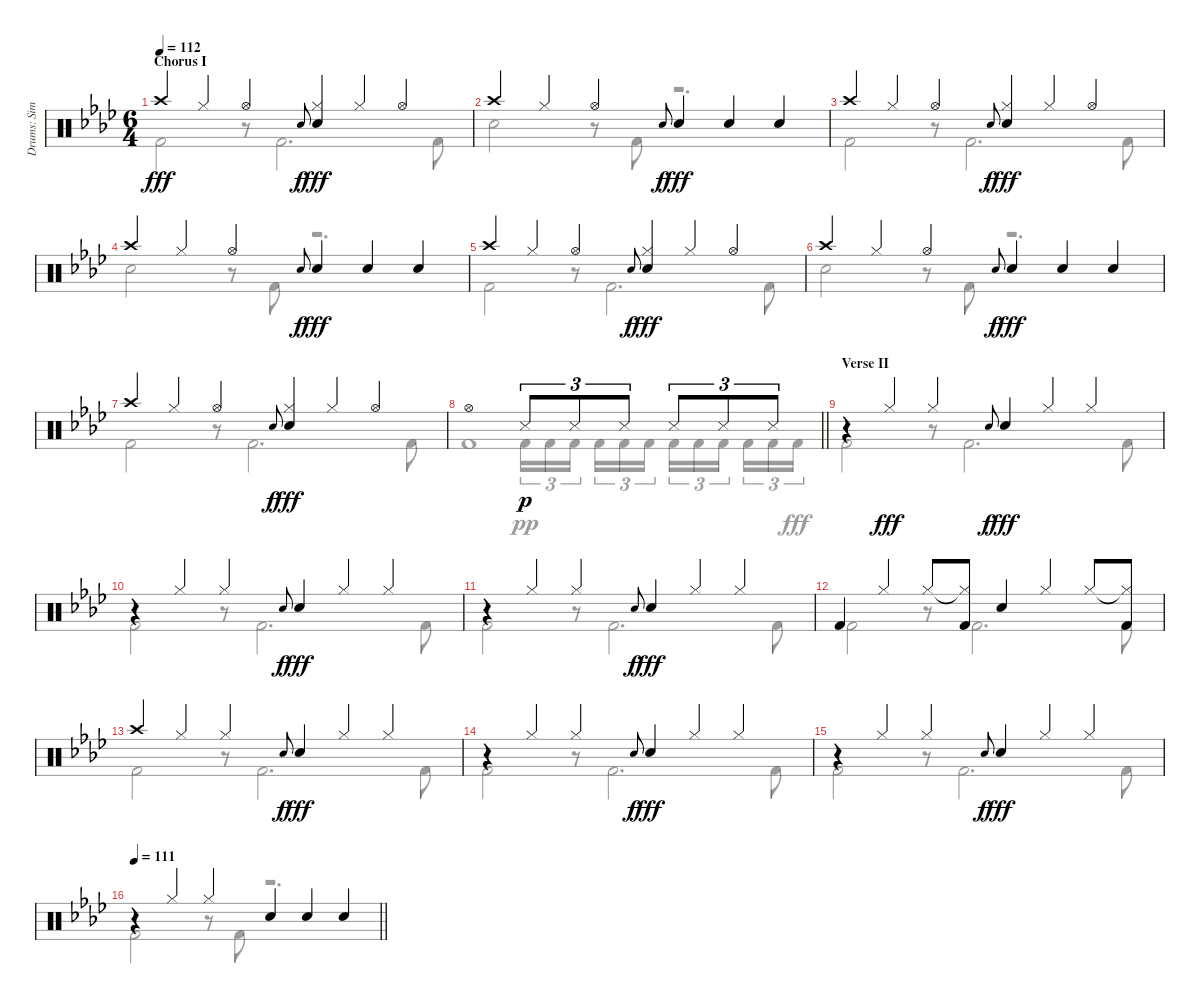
\track ("Drums: Simon" "Drums: Sim") {instrument percussion}
\staff {score}
\articulation defaults
\voice
\ts (6 4)
\section ("" "Chorus I")
\tempo 112
\clef neutral
\ks ab "Crash high (hit)".4{dy fff} "Hi-Hat (closed)".4 "Hi-Hat (open)".4 "Electric Snare (hit)".8{gr onbeat dy f}
("Hi-Hat (closed)" "Snare (hit) 2").4{dy fff} "Hi-Hat (closed)".4 "Hi-Hat (open)".4 |
"Crash high (hit)".4 "Hi-Hat (closed)".4 "Hi-Hat (open)".4 "Snare (hit) 2".8{gr onbeat dy f} "Electric Snare (hit)".4{dy fff} "Electric Snare (hit)".4 "Electric Snare (hit)".4 |
"Crash high (hit)".4 "Hi-Hat (closed)".4 "Hi-Hat (open)".4 "Electric Snare (hit)".8{gr onbeat dy f} ("Hi-Hat (closed)" "Snare (hit) 2").4{dy fff} "Hi-Hat (closed)".4 "Hi-Hat (open)".4 |
"Crash high (hit)".4 "Hi-Hat (closed)".4 "Hi-Hat (open)".4 "Snare (hit) 2".8{gr onbeat dy f} "Electric Snare (hit)".4{dy fff} "Electric Snare (hit)".4 "Electric Snare (hit)".4 |
"Crash high (hit)".4 "Hi-Hat (closed)".4 "Hi-Hat (open)".4 "Electric Snare (hit)".8{gr onbeat dy f} ("Hi-Hat (closed)" "Snare (hit) 2").4{dy fff} "Hi-Hat (closed)".4 "Hi-Hat (open)".4 |
"Crash high (hit)".4 "Hi-Hat (closed)".4 "Hi-Hat (open)".4 "Snare (hit) 2".8{gr onbeat dy f} "Electric Snare (hit)".4{dy fff} "Electric Snare (hit)".4 "Electric Snare (hit)".4 |
"Crash high (hit)".4 "Hi-Hat (closed)".4 "Hi-Hat (open)".4 "Electric Snare (hit)".8{gr onbeat dy f} ("Hi-Hat (closed)" "Snare (hit) 2").4{dy fff} "Hi-Hat (closed)".4 "Hi-Hat (open)".4 |
\barLineRight lightlight "Hi-Hat (open)".1 "Snare (side stick) 3".8{tu (3 2) dy p} "Snare (side stick) 3".8{tu (3 2)} "Snare (side stick) 3".8{tu (3 2)} "Snare (side stick) 3".8{tu (3 2)} "Snare (side stick) 3".8{tu (3 2)} "Snare (side stick) 3".8{tu (3 2)}
|
\section ("" "Verse II")
r.4 "Hi-Hat (closed)".4{dy fff} "Hi-Hat (closed)".4 "Electric Snare (hit)".8{gr onbeat dy f} "Snare (hit) 2".4{dy fff} "Hi-Hat (closed)".4 "Hi-Hat (closed)".4 |
r.4 "Hi-Hat (closed)".4 "Hi-Hat (closed)".4 "Snare (hit) 2".8{gr onbeat dy f} "Electric Snare (hit)".4{dy fff} "Hi-Hat (closed)".4 "Hi-Hat (closed)".4 |
r.4 "Hi-Hat (closed)".4 "Hi-Hat (closed)".4 "Snare (hit) 2".8{gr onbeat dy f} "Electric Snare (hit)".4{dy fff} "Hi-Hat (closed)".4 "Hi-Hat (closed)".4 |
"Kick (hit) 2".4 "Hi-Hat (closed)".4 "Hi-Hat (closed)".8 ("Hi-Hat (closed)"{t} "Kick (hit) 2").8 "Electric Snare (hit)".4 "Hi-Hat (closed)".4 "Hi-Hat (closed)".8 ("Hi-Hat (closed)"{t} "Kick (hit) 2").8 |
"Crash high (hit)".4 "Hi-Hat (closed)".4 "Hi-Hat (closed)".4 "Snare (hit) 2".8{gr onbeat dy f} "Electric Snare (hit)".4{dy fff} "Hi-Hat (closed)".4 "Hi-Hat (closed)".4 |
r.4 "Hi-Hat (closed)".4 "Hi-Hat (closed)".4 "Snare (hit) 2".8{gr onbeat dy f} "Electric Snare (hit)".4{dy fff} "Hi-Hat (closed)".4 "Hi-Hat (closed)".4 |
r.4 "Hi-Hat (closed)".4 "Hi-Hat (closed)".4 "Snare (hit) 2".8{gr onbeat dy f} "Electric Snare (hit)".4{dy fff} "Hi-Hat (closed)".4 "Hi-Hat (closed)".4 |
\tempo 111
\barLineRight lightlight
r.4 "Hi-Hat (closed)".4 "Hi-Hat (closed)".4 "Electric Snare (hit)".4 "Electric Snare (hit)".4 "Electric Snare (hit)".4
\voice
\clef neutral
\ottava regular
\simile none
\ks ab "Kick (hit) 2".2{dy fff}
r.8 "Kick (hit) 2".2{d} "Kick (hit) 2".8 |
"Snare (hit)".2 r.8 "Kick (hit) 2".8 r.2{d} |
"Kick (hit) 2".2 r.8 "Kick (hit) 2".2{d} "Kick (hit) 2".8 |
"Snare (hit)".2 r.8 "Kick (hit) 2".8 r.2{d} |
"Kick (hit) 2".2 r.8 "Kick (hit) 2".2{d} "Kick (hit) 2".8 |
"Snare (hit)".2 r.8 "Kick (hit) 2".8 r.2{d} |
"Kick (hit) 2".2 r.8 "Kick (hit) 2".2{d} "Kick (hit) 2".8 |
\barLineRight lightlight "Kick (hit) 2".1 "Kick (hit) 2".16{tu (3 2) dy pp} "Kick (hit) 2".16{tu (3 2)} "Kick (hit) 2".16{tu (3 2) beam splitsecondary} "Kick (hit) 2".16{tu (3 2)} "Kick (hit) 2".16{tu (3 2)} "Kick (hit) 2".16{tu (3 2) beam splitsecondary} "Kick (hit) 2".16{tu (3 2)} "Kick (hit) 2".16{tu (3 2)} "Kick (hit) 2".16{tu (3 2) beam splitsecondary} "Kick (hit) 2".16{tu (3 2)} "Kick (hit) 2".16{tu (3 2)} "Kick (hit) 2".16{tu (3 2) dy fff}
|
"Kick (hit) 2".2 r.8 "Kick (hit) 2".2{d} "Kick (hit) 2".8 |
"Kick (hit) 2".2 r.8 "Kick (hit) 2".2{d} "Kick (hit) 2".8 |
"Kick (hit) 2".2 r.8 "Kick (hit) 2".2{d} "Kick (hit) 2".8 |
"Kick (hit) 2".2 r.8 "Kick (hit) 2".2{d} "Kick (hit) 2".8 |
"Kick (hit) 2".2 r.8 "Kick (hit) 2".2{d} "Kick (hit) 2".8 |
"Kick (hit) 2".2 r.8 "Kick (hit) 2".2{d} "Kick (hit) 2".8 |
"Kick (hit) 2".2 r.8 "Kick (hit) 2".2{d} "Kick (hit) 2".8 |
\barLineRight lightlight "Kick (hit) 2".2
r.8 "Kick (hit) 2".8 r.2{d}
